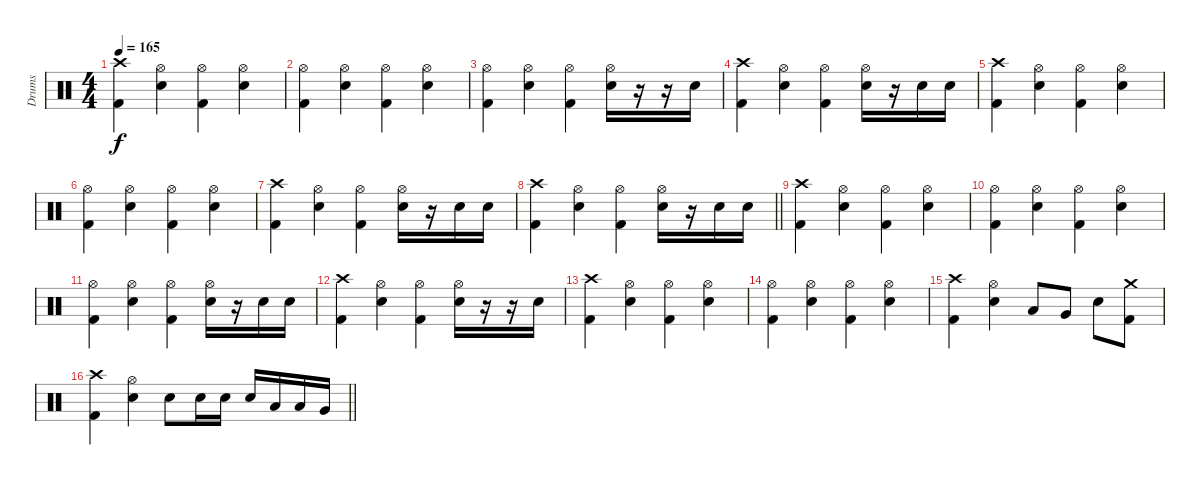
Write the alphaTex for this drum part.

\track ("Drums" "Drums") {instrument percussion}
\staff {score}
\articulation defaults
\ts (4 4)
\tempo 165
\clef neutral
\ks c
("Kick (hit) 2" "Crash high (hit)").4{dy f} ("Snare (hit) 2" "Hi-Hat (open)").4 ("Kick (hit) 2" "Hi-Hat (open)").4 ("Snare (hit) 2" "Hi-Hat (open)").4 |
("Kick (hit) 2" "Hi-Hat (open)").4 ("Snare (hit) 2" "Hi-Hat (open)").4 ("Kick (hit) 2" "Hi-Hat (open)").4 ("Snare (hit) 2" "Hi-Hat (open)").4 |
("Kick (hit) 2" "Hi-Hat (open)").4 ("Snare (hit) 2" "Hi-Hat (open)").4 ("Kick (hit) 2" "Hi-Hat (open)").4 ("Snare (hit) 2" "Hi-Hat (open)").16 r.16 r.16 "Snare (hit) 2".16 |
("Kick (hit) 2" "Crash high (hit)").4 ("Snare (hit) 2" "Hi-Hat (open)").4 ("Kick (hit) 2" "Hi-Hat (open)").4 ("Snare (hit) 2" "Hi-Hat (open)").16 r.16 "Snare (hit) 2".16 "Snare (hit) 2".16 |
("Kick (hit) 2" "Crash high (hit)").4 ("Snare (hit) 2" "Hi-Hat (open)").4 ("Kick (hit) 2" "Hi-Hat (open)").4 ("Snare (hit) 2" "Hi-Hat (open)").4 |
("Kick (hit) 2" "Hi-Hat (open)").4 ("Snare (hit) 2" "Hi-Hat (open)").4 ("Kick (hit) 2" "Hi-Hat (open)").4 ("Snare (hit) 2" "Hi-Hat (open)").4 |
("Kick (hit) 2" "Crash high (hit)").4 ("Snare (hit) 2" "Hi-Hat (open)").4 ("Kick (hit) 2" "Hi-Hat (open)").4 ("Snare (hit) 2" "Hi-Hat (open)").16 r.16 "Snare (hit) 2".16 "Snare (hit) 2".16 |
\barLineRight lightlight
("Kick (hit) 2" "Crash high (hit)").4 ("Snare (hit) 2" "Hi-Hat (open)").4 ("Kick (hit) 2" "Hi-Hat (open)").4 ("Snare (hit) 2" "Hi-Hat (open)").16 r.16 "Snare (hit) 2".16 "Snare (hit) 2".16 |
\section ("" "")
("Kick (hit) 2" "Crash high (hit)").4 ("Snare (hit) 2" "Hi-Hat (open)").4 ("Kick (hit) 2" "Hi-Hat (open)").4 ("Snare (hit) 2" "Hi-Hat (open)").4 |
("Kick (hit) 2" "Hi-Hat (open)").4 ("Snare (hit) 2" "Hi-Hat (open)").4 ("Kick (hit) 2" "Hi-Hat (open)").4 ("Snare (hit) 2" "Hi-Hat (open)").4 |
("Kick (hit) 2" "Hi-Hat (open)").4 ("Snare (hit) 2" "Hi-Hat (open)").4 ("Kick (hit) 2" "Hi-Hat (open)").4 ("Snare (hit) 2" "Hi-Hat (open)").16 r.16 "Snare (hit) 2".16 "Snare (hit) 2".16 |
("Kick (hit) 2" "Crash high (hit)").4 ("Snare (hit) 2" "Hi-Hat (open)").4 ("Kick (hit) 2" "Hi-Hat (open)").4 ("Snare (hit) 2" "Hi-Hat (open)").16 r.16 r.16 "Snare (hit) 2".16 |
("Kick (hit) 2" "Crash high (hit)").4 ("Snare (hit) 2" "Hi-Hat (open)").4 ("Kick (hit) 2" "Hi-Hat (open)").4 ("Snare (hit) 2" "Hi-Hat (open)").4 |
("Kick (hit) 2" "Hi-Hat (open)").4 ("Snare (hit) 2" "Hi-Hat (open)").4 ("Kick (hit) 2" "Hi-Hat (open)").4 ("Snare (hit) 2" "Hi-Hat (open)").4 |
("Kick (hit) 2" "Crash high (hit)").4 ("Snare (hit) 2" "Hi-Hat (open)").4 "Low Tom (hit)".8 "Very Low Tom (hit)".8 "Snare (hit) 2".8 ("Kick (hit) 2" "Crash medium (hit)").8 |
\barLineRight lightlight
("Kick (hit) 2" "Crash high (hit)").4 ("Snare (hit) 2" "Hi-Hat (open)").4 "Snare (hit) 2".8 "Snare (hit) 2".16 "Snare (hit) 2".16 "Snare (hit) 2".16 "Low Tom (hit)".16 "Low Tom (hit)".16 "Very Low Tom (hit)".16
